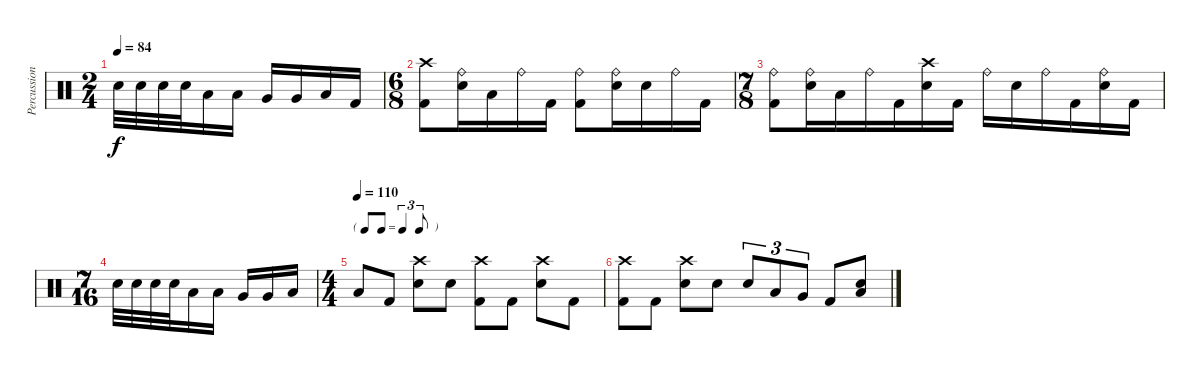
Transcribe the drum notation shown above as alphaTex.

\track ("Percussion" "Percussion") {instrument percussion}
\staff {score}
\articulation defaults
\ts (2 4)
\tempo 84
\clef neutral
\ks c "Electric Snare (hit)".32{dy f} "Electric Snare (hit)".32 "Electric Snare (hit)".32 "Electric Snare (hit)".32 "Low Tom (hit)".16 "Low Tom (hit)".16 "Very Low Tom (hit)".16 "Very Low Tom (hit)".16 "Low Floor Tom (hit)".16 "Kick (hit) 2".16
|
\ts (6 8)
("Crash high (hit)" "Kick (hit) 2").8 ("Ride (bell)" "Electric Snare (hit)").16 "Low Tom (hit)".16 "Ride (bell)".16 "Kick (hit) 2".16 ("Ride (bell)" "Kick (hit) 2").8 ("Ride (bell)" "Electric Snare (hit)").16 "Electric Snare (hit)".16 "Ride (bell)".16 "Kick (hit) 2".16 |
\ts (7 8)
("Ride (bell)" "Kick (hit) 2").8 ("Ride (bell)" "Electric Snare (hit)").16 "Low Tom (hit)".16 "Ride (bell)".16 "Kick (hit) 2".16 ("Crash high (hit)" "Electric Snare (hit)").16 "Kick (hit) 2".16 "Ride (bell)".16 "Electric Snare (hit)".16 "Ride (bell)".16 "Kick (hit) 2".16 ("Ride (bell)" "Electric Snare (hit)").16 "Kick (hit) 2".16 |
\ts (7 16)
"Electric Snare (hit)".32 "Electric Snare (hit)".32 "Electric Snare (hit)".32 "Electric Snare (hit)".32 "Low Tom (hit)".16 "Low Tom (hit)".16 "Very Low Tom (hit)".16 "Very Low Tom (hit)".16 "Low Floor Tom (hit)".16 |
\ts (4 4)
\tf triplet8th
\tempo (110)
"Low Floor Tom (hit)".8 "Kick (hit) 2".8 ("Crash high (hit)" "Electric Snare (hit)").8 "Electric Snare (hit)".8 ("Crash high (hit)" "Kick (hit) 2").8 "Kick (hit) 2".8 ("Crash high (hit)" "Electric Snare (hit)").8 "Kick (hit) 2".8 |
("Crash high (hit)" "Kick (hit) 2").8 "Kick (hit) 2".8 ("Crash high (hit)" "Electric Snare (hit)").8 "Electric Snare (hit)".8 "Electric Snare (hit)".8{tu (3 2)} "Low Tom (hit)".8{tu (3 2)} "Very Low Tom (hit)".8{tu (3 2)} "Kick (hit) 2".8 ("Electric Snare (hit)" "Low Floor Tom (hit)").8
